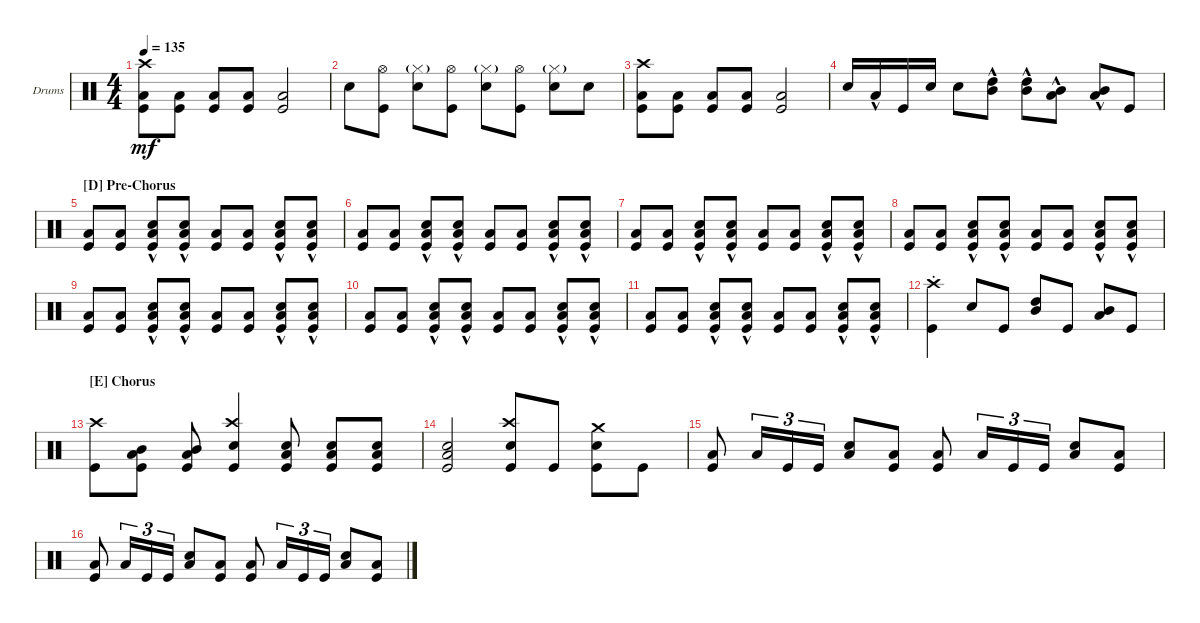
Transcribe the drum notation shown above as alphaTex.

\defaultSystemsLayout 4
\bracketExtendMode groupsimilarinstruments
\firstSystemTrackNameOrientation horizontal
\otherSystemsTrackNameOrientation horizontal
\track ("Drumkit" "Drums") {instrument percussion}
\staff {score}
\articulation defaults
\ts (4 4)
\tempo 135
\clef neutral
\ks c
("Kick (hit)" "Low Tom (hit)" "Crash high (hit)").8{dy mf} ("Kick (hit)" "Low Tom (hit)").8 ("Kick (hit)" "Low Tom (hit)").8 ("Kick (hit)" "Low Tom (hit)").8 ("Kick (hit)" "Low Tom (hit)").2 |
"Snare (hit) 2".8 ("Hi-Hat (open)" "Kick (hit)").8 ("Snare (hit) 2" "Hi-Hat (closed)"{g}).8 ("Hi-Hat (open)" "Kick (hit)").8 ("Snare (hit) 2" "Hi-Hat (closed)"{g}).8 ("Kick (hit)" "Hi-Hat (open)").8 ("Snare (hit) 2" "Hi-Hat (closed)"{g}).8 "Snare (hit) 2".8 |
("Kick (hit)" "Low Tom (hit)" "Crash high (hit)").8 ("Kick (hit)" "Low Tom (hit)").8 ("Kick (hit)" "Low Tom (hit)").8 ("Kick (hit)" "Low Tom (hit)").8 ("Kick (hit)" "Low Tom (hit)").2 |
"Snare (hit) 2".16 "Low Tom (hit)"{hac}.16 "Kick (hit)".16 "Snare (hit) 2".16 "Snare (hit) 2".8 ("Mid Tom (hit)"{hac} "High Tom (hit)"{hac}).8 ("Mid Tom (hit)"{hac} "High Tom (hit)"{hac}).8 ("Low Tom (hit)"{hac} "Mid Tom (hit)"{hac}).8 ("Low Tom (hit)"{hac} "Mid Tom (hit)"{hac}).8 "Kick (hit)".8 |
\section ("D" "Pre-Chorus")
("Kick (hit)" "Low Tom (hit)").8 ("Kick (hit)" "Low Tom (hit)").8 ("Kick (hit)" "Snare (hit) 2"{hac} "Low Tom (hit)").8 ("Kick (hit)" "Snare (hit) 2"{hac} "Low Tom (hit)").8 ("Kick (hit)" "Low Tom (hit)").8 ("Kick (hit)" "Low Tom (hit)").8 ("Kick (hit)" "Snare (hit) 2"{hac} "Low Tom (hit)").8 ("Kick (hit)" "Snare (hit) 2"{hac} "Low Tom (hit)").8 |
("Kick (hit)" "Low Tom (hit)").8 ("Kick (hit)" "Low Tom (hit)").8 ("Kick (hit)" "Snare (hit) 2"{hac} "Low Tom (hit)").8 ("Kick (hit)" "Snare (hit) 2"{hac} "Low Tom (hit)").8 ("Kick (hit)" "Low Tom (hit)").8 ("Kick (hit)" "Low Tom (hit)").8 ("Kick (hit)" "Snare (hit) 2"{hac} "Low Tom (hit)").8 ("Kick (hit)" "Snare (hit) 2"{hac} "Low Tom (hit)").8 |
("Kick (hit)" "Low Tom (hit)").8 ("Kick (hit)" "Low Tom (hit)").8 ("Kick (hit)" "Snare (hit) 2"{hac} "Low Tom (hit)").8 ("Kick (hit)" "Snare (hit) 2"{hac} "Low Tom (hit)").8 ("Kick (hit)" "Low Tom (hit)").8 ("Kick (hit)" "Low Tom (hit)").8 ("Kick (hit)" "Snare (hit) 2"{hac} "Low Tom (hit)").8 ("Kick (hit)" "Snare (hit) 2"{hac} "Low Tom (hit)").8 |
("Kick (hit)" "Low Tom (hit)").8 ("Kick (hit)" "Low Tom (hit)").8 ("Kick (hit)" "Snare (hit) 2"{hac} "Low Tom (hit)").8 ("Kick (hit)" "Snare (hit) 2"{hac} "Low Tom (hit)").8 ("Kick (hit)" "Low Tom (hit)").8 ("Kick (hit)" "Low Tom (hit)").8 ("Kick (hit)" "Snare (hit) 2"{hac} "Low Tom (hit)").8 ("Kick (hit)" "Snare (hit) 2"{hac} "Low Tom (hit)").8 |
("Kick (hit)" "Low Tom (hit)").8 ("Kick (hit)" "Low Tom (hit)").8 ("Kick (hit)" "Snare (hit) 2"{hac} "Low Tom (hit)").8 ("Kick (hit)" "Snare (hit) 2"{hac} "Low Tom (hit)").8 ("Kick (hit)" "Low Tom (hit)").8 ("Kick (hit)" "Low Tom (hit)").8 ("Kick (hit)" "Snare (hit) 2"{hac} "Low Tom (hit)").8 ("Kick (hit)" "Snare (hit) 2"{hac} "Low Tom (hit)").8 |
("Kick (hit)" "Low Tom (hit)").8 ("Kick (hit)" "Low Tom (hit)").8 ("Kick (hit)" "Snare (hit) 2"{hac} "Low Tom (hit)").8 ("Kick (hit)" "Snare (hit) 2"{hac} "Low Tom (hit)").8 ("Kick (hit)" "Low Tom (hit)").8 ("Kick (hit)" "Low Tom (hit)").8 ("Kick (hit)" "Snare (hit) 2"{hac} "Low Tom (hit)").8 ("Kick (hit)" "Snare (hit) 2"{hac} "Low Tom (hit)").8 |
("Kick (hit)" "Low Tom (hit)").8 ("Kick (hit)" "Low Tom (hit)").8 ("Kick (hit)" "Snare (hit) 2"{hac} "Low Tom (hit)").8 ("Kick (hit)" "Snare (hit) 2"{hac} "Low Tom (hit)").8 ("Kick (hit)" "Low Tom (hit)").8 ("Kick (hit)" "Low Tom (hit)").8 ("Kick (hit)" "Snare (hit) 2"{hac} "Low Tom (hit)").8 ("Kick (hit)" "Snare (hit) 2"{hac} "Low Tom (hit)").8 |
("Kick (hit)" "Crash high (hit)"{st}).4 "Snare (hit) 2".8 "Kick (hit)".8 ("High Tom (hit)" "Mid Tom (hit)").8 "Kick (hit)".8 ("Mid Tom (hit)" "Low Tom (hit)").8 "Kick (hit)".8 |
\section ("E" "Chorus")
("Kick (hit)" "Crash high (hit)").8 ("Mid Tom (hit)" "Low Tom (hit)" "Kick (hit)").8 ("Mid Tom (hit)" "Low Tom (hit)" "Kick (hit)").8 ("Kick (hit)" "Snare (hit) 2" "Crash high (hit)").4 ("Kick (hit)" "Low Tom (hit)" "Snare (hit) 2").8 ("Kick (hit)" "Snare (hit) 2" "Low Tom (hit)").8 ("Kick (hit)" "Low Tom (hit)" "Snare (hit) 2").8 |
("Kick (hit)" "Snare (hit) 2" "Low Tom (hit)").2 ("Snare (hit) 2" "Kick (hit)" "Crash high (hit)").8 "Kick (hit)".8 ("Snare (hit) 2" "Crash medium (hit)" "Kick (hit)").8 "Kick (hit)".8 |
("Kick (hit)" "Low Tom (hit)").8 "Low Tom (hit)".16{tu (3 2)} "Kick (hit)".16{tu (3 2)} "Kick (hit)".16{tu (3 2)} ("Low Tom (hit)" "Snare (hit) 2").8 ("Kick (hit)" "Low Tom (hit)").8 ("Kick (hit)" "Low Tom (hit)").8 "Low Tom (hit)".16{tu (3 2)} "Kick (hit)".16{tu (3 2)} "Kick (hit)".16{tu (3 2)} ("Snare (hit) 2" "Low Tom (hit)").8 ("Kick (hit)" "Low Tom (hit)").8 |
("Kick (hit)" "Low Tom (hit)").8 "Low Tom (hit)".16{tu (3 2)} "Kick (hit)".16{tu (3 2)} "Kick (hit)".16{tu (3 2)} ("Low Tom (hit)" "Snare (hit) 2").8 ("Kick (hit)" "Low Tom (hit)").8 ("Kick (hit)" "Low Tom (hit)").8 "Low Tom (hit)".16{tu (3 2)} "Kick (hit)".16{tu (3 2)} "Kick (hit)".16{tu (3 2)} ("Snare (hit) 2" "Low Tom (hit)").8 ("Kick (hit)" "Low Tom (hit)").8
